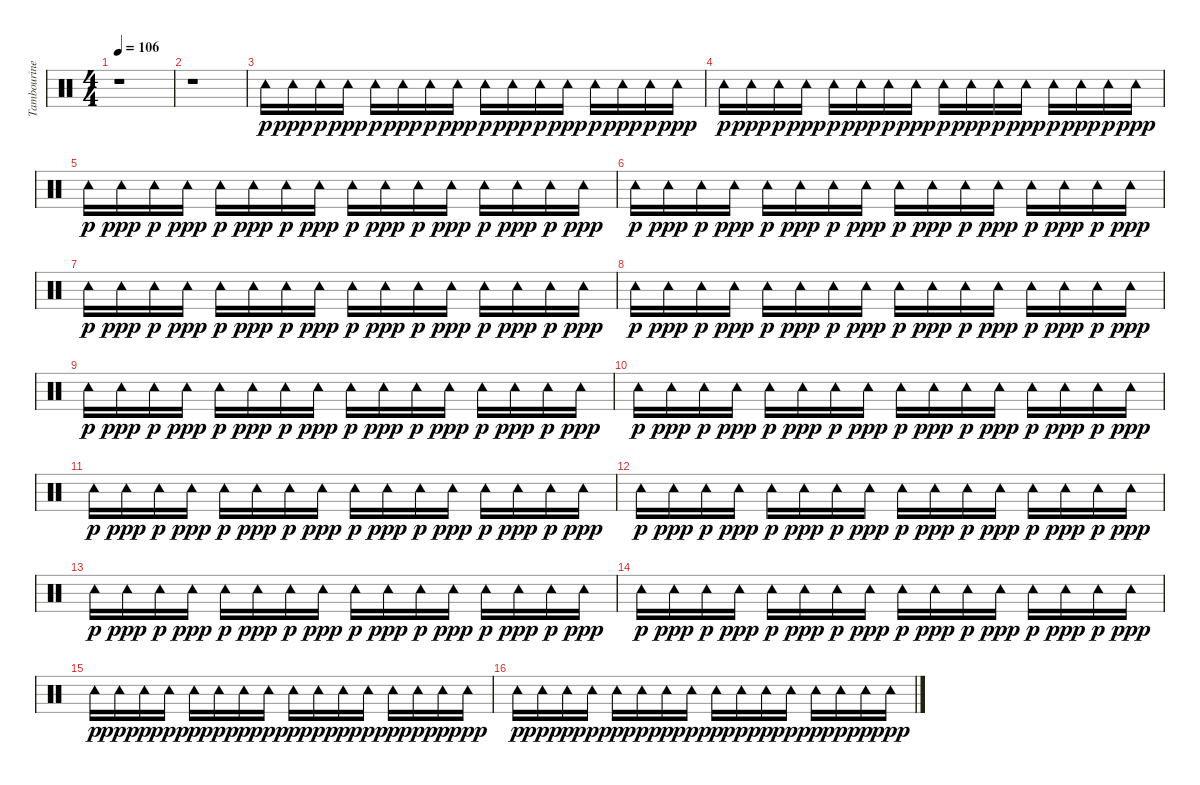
\track ("Tambourine" "Tambourine") {instrument percussion}
\staff {score}
\articulation defaults
\ts (4 4)
\tempo 106
\clef neutral
\ks c
r.1{dy p} |
r.1 |
"Tambourine (hit)".16 "Tambourine (hit)".16{dy ppp} "Tambourine (hit)".16{dy p} "Tambourine (hit)".16{dy ppp} "Tambourine (hit)".16{dy p} "Tambourine (hit)".16{dy ppp} "Tambourine (hit)".16{dy p} "Tambourine (hit)".16{dy ppp} "Tambourine (hit)".16{dy p} "Tambourine (hit)".16{dy ppp} "Tambourine (hit)".16{dy p} "Tambourine (hit)".16{dy ppp} "Tambourine (hit)".16{dy p} "Tambourine (hit)".16{dy ppp} "Tambourine (hit)".16{dy p} "Tambourine (hit)".16{dy ppp} |
"Tambourine (hit)".16{dy p} "Tambourine (hit)".16{dy ppp} "Tambourine (hit)".16{dy p} "Tambourine (hit)".16{dy ppp} "Tambourine (hit)".16{dy p} "Tambourine (hit)".16{dy ppp} "Tambourine (hit)".16{dy p} "Tambourine (hit)".16{dy ppp} "Tambourine (hit)".16{dy p} "Tambourine (hit)".16{dy ppp} "Tambourine (hit)".16{dy p} "Tambourine (hit)".16{dy ppp} "Tambourine (hit)".16{dy p} "Tambourine (hit)".16{dy ppp} "Tambourine (hit)".16{dy p} "Tambourine (hit)".16{dy ppp} |
"Tambourine (hit)".16{dy p} "Tambourine (hit)".16{dy ppp} "Tambourine (hit)".16{dy p} "Tambourine (hit)".16{dy ppp} "Tambourine (hit)".16{dy p} "Tambourine (hit)".16{dy ppp} "Tambourine (hit)".16{dy p} "Tambourine (hit)".16{dy ppp} "Tambourine (hit)".16{dy p} "Tambourine (hit)".16{dy ppp} "Tambourine (hit)".16{dy p} "Tambourine (hit)".16{dy ppp} "Tambourine (hit)".16{dy p} "Tambourine (hit)".16{dy ppp} "Tambourine (hit)".16{dy p} "Tambourine (hit)".16{dy ppp} |
"Tambourine (hit)".16{dy p} "Tambourine (hit)".16{dy ppp} "Tambourine (hit)".16{dy p} "Tambourine (hit)".16{dy ppp} "Tambourine (hit)".16{dy p} "Tambourine (hit)".16{dy ppp} "Tambourine (hit)".16{dy p} "Tambourine (hit)".16{dy ppp} "Tambourine (hit)".16{dy p} "Tambourine (hit)".16{dy ppp} "Tambourine (hit)".16{dy p} "Tambourine (hit)".16{dy ppp} "Tambourine (hit)".16{dy p} "Tambourine (hit)".16{dy ppp} "Tambourine (hit)".16{dy p} "Tambourine (hit)".16{dy ppp} |
"Tambourine (hit)".16{dy p} "Tambourine (hit)".16{dy ppp} "Tambourine (hit)".16{dy p} "Tambourine (hit)".16{dy ppp} "Tambourine (hit)".16{dy p} "Tambourine (hit)".16{dy ppp} "Tambourine (hit)".16{dy p} "Tambourine (hit)".16{dy ppp} "Tambourine (hit)".16{dy p} "Tambourine (hit)".16{dy ppp} "Tambourine (hit)".16{dy p} "Tambourine (hit)".16{dy ppp} "Tambourine (hit)".16{dy p} "Tambourine (hit)".16{dy ppp} "Tambourine (hit)".16{dy p} "Tambourine (hit)".16{dy ppp} |
"Tambourine (hit)".16{dy p} "Tambourine (hit)".16{dy ppp} "Tambourine (hit)".16{dy p} "Tambourine (hit)".16{dy ppp} "Tambourine (hit)".16{dy p} "Tambourine (hit)".16{dy ppp} "Tambourine (hit)".16{dy p} "Tambourine (hit)".16{dy ppp} "Tambourine (hit)".16{dy p} "Tambourine (hit)".16{dy ppp} "Tambourine (hit)".16{dy p} "Tambourine (hit)".16{dy ppp} "Tambourine (hit)".16{dy p} "Tambourine (hit)".16{dy ppp} "Tambourine (hit)".16{dy p} "Tambourine (hit)".16{dy ppp} |
"Tambourine (hit)".16{dy p} "Tambourine (hit)".16{dy ppp} "Tambourine (hit)".16{dy p} "Tambourine (hit)".16{dy ppp} "Tambourine (hit)".16{dy p} "Tambourine (hit)".16{dy ppp} "Tambourine (hit)".16{dy p} "Tambourine (hit)".16{dy ppp} "Tambourine (hit)".16{dy p} "Tambourine (hit)".16{dy ppp} "Tambourine (hit)".16{dy p} "Tambourine (hit)".16{dy ppp} "Tambourine (hit)".16{dy p} "Tambourine (hit)".16{dy ppp} "Tambourine (hit)".16{dy p} "Tambourine (hit)".16{dy ppp} |
"Tambourine (hit)".16{dy p} "Tambourine (hit)".16{dy ppp} "Tambourine (hit)".16{dy p} "Tambourine (hit)".16{dy ppp} "Tambourine (hit)".16{dy p} "Tambourine (hit)".16{dy ppp} "Tambourine (hit)".16{dy p} "Tambourine (hit)".16{dy ppp} "Tambourine (hit)".16{dy p} "Tambourine (hit)".16{dy ppp} "Tambourine (hit)".16{dy p} "Tambourine (hit)".16{dy ppp} "Tambourine (hit)".16{dy p} "Tambourine (hit)".16{dy ppp} "Tambourine (hit)".16{dy p} "Tambourine (hit)".16{dy ppp} |
"Tambourine (hit)".16{dy p} "Tambourine (hit)".16{dy ppp} "Tambourine (hit)".16{dy p} "Tambourine (hit)".16{dy ppp} "Tambourine (hit)".16{dy p} "Tambourine (hit)".16{dy ppp} "Tambourine (hit)".16{dy p} "Tambourine (hit)".16{dy ppp} "Tambourine (hit)".16{dy p} "Tambourine (hit)".16{dy ppp} "Tambourine (hit)".16{dy p} "Tambourine (hit)".16{dy ppp} "Tambourine (hit)".16{dy p} "Tambourine (hit)".16{dy ppp} "Tambourine (hit)".16{dy p} "Tambourine (hit)".16{dy ppp} |
"Tambourine (hit)".16{dy p} "Tambourine (hit)".16{dy ppp} "Tambourine (hit)".16{dy p} "Tambourine (hit)".16{dy ppp} "Tambourine (hit)".16{dy p} "Tambourine (hit)".16{dy ppp} "Tambourine (hit)".16{dy p} "Tambourine (hit)".16{dy ppp} "Tambourine (hit)".16{dy p} "Tambourine (hit)".16{dy ppp} "Tambourine (hit)".16{dy p} "Tambourine (hit)".16{dy ppp} "Tambourine (hit)".16{dy p} "Tambourine (hit)".16{dy ppp} "Tambourine (hit)".16{dy p} "Tambourine (hit)".16{dy ppp} |
"Tambourine (hit)".16{dy p} "Tambourine (hit)".16{dy ppp} "Tambourine (hit)".16{dy p} "Tambourine (hit)".16{dy ppp} "Tambourine (hit)".16{dy p} "Tambourine (hit)".16{dy ppp} "Tambourine (hit)".16{dy p} "Tambourine (hit)".16{dy ppp} "Tambourine (hit)".16{dy p} "Tambourine (hit)".16{dy ppp} "Tambourine (hit)".16{dy p} "Tambourine (hit)".16{dy ppp} "Tambourine (hit)".16{dy p} "Tambourine (hit)".16{dy ppp} "Tambourine (hit)".16{dy p} "Tambourine (hit)".16{dy ppp} |
"Tambourine (hit)".16{dy p} "Tambourine (hit)".16{dy ppp} "Tambourine (hit)".16{dy p} "Tambourine (hit)".16{dy ppp} "Tambourine (hit)".16{dy p} "Tambourine (hit)".16{dy ppp} "Tambourine (hit)".16{dy p} "Tambourine (hit)".16{dy ppp} "Tambourine (hit)".16{dy p} "Tambourine (hit)".16{dy ppp} "Tambourine (hit)".16{dy p} "Tambourine (hit)".16{dy ppp} "Tambourine (hit)".16{dy p} "Tambourine (hit)".16{dy ppp} "Tambourine (hit)".16{dy p} "Tambourine (hit)".16{dy ppp} |
"Tambourine (hit)".16{dy p} "Tambourine (hit)".16{dy ppp} "Tambourine (hit)".16{dy p} "Tambourine (hit)".16{dy ppp} "Tambourine (hit)".16{dy p} "Tambourine (hit)".16{dy ppp} "Tambourine (hit)".16{dy p} "Tambourine (hit)".16{dy ppp} "Tambourine (hit)".16{dy p} "Tambourine (hit)".16{dy ppp} "Tambourine (hit)".16{dy p} "Tambourine (hit)".16{dy ppp} "Tambourine (hit)".16{dy p} "Tambourine (hit)".16{dy ppp} "Tambourine (hit)".16{dy p} "Tambourine (hit)".16{dy ppp} |
"Tambourine (hit)".16{dy p} "Tambourine (hit)".16{dy ppp} "Tambourine (hit)".16{dy p} "Tambourine (hit)".16{dy ppp} "Tambourine (hit)".16{dy p} "Tambourine (hit)".16{dy ppp} "Tambourine (hit)".16{dy p} "Tambourine (hit)".16{dy ppp} "Tambourine (hit)".16{dy p} "Tambourine (hit)".16{dy ppp} "Tambourine (hit)".16{dy p} "Tambourine (hit)".16{dy ppp} "Tambourine (hit)".16{dy p} "Tambourine (hit)".16{dy ppp} "Tambourine (hit)".16{dy p} "Tambourine (hit)".16{dy ppp}
